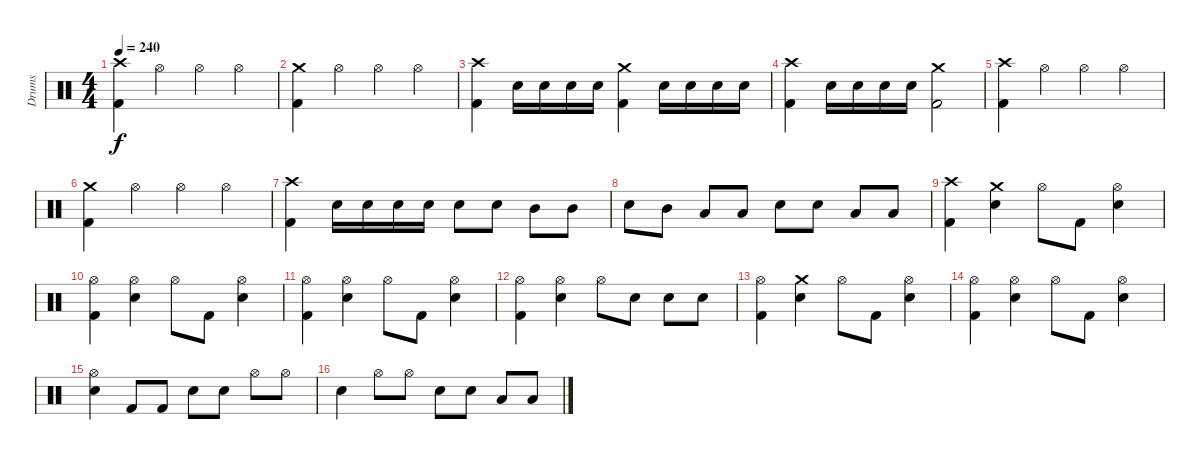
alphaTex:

\track ("Drums" "Drums") {instrument percussion}
\staff {score}
\articulation defaults
\ts (4 4)
\tempo 240
\clef neutral
\ks c
("Crash high (hit)" "Kick (hit) 2").4{dy f} "Hi-Hat (open)".4 "Hi-Hat (open)".4 "Hi-Hat (open)".4 |
("Crash medium (hit)" "Kick (hit) 2").4 "Hi-Hat (open)".4 "Hi-Hat (open)".4 "Hi-Hat (open)".4 |
("Crash high (hit)" "Kick (hit) 2").4 "Snare (hit) 2".16 "Snare (hit) 2".16 "Snare (hit) 2".16 "Snare (hit) 2".16 ("Crash medium (hit)" "Kick (hit) 2").4 "Snare (hit) 2".16 "Snare (hit) 2".16 "Snare (hit) 2".16 "Snare (hit) 2".16 |
("Crash high (hit)" "Kick (hit) 2").4 "Snare (hit) 2".16 "Snare (hit) 2".16 "Snare (hit) 2".16 "Snare (hit) 2".16 ("Crash medium (hit)" "Kick (hit) 2").2 |
("Crash high (hit)" "Kick (hit) 2").4 "Hi-Hat (open)".4 "Hi-Hat (open)".4 "Hi-Hat (open)".4 |
("Crash medium (hit)" "Kick (hit) 2").4 "Hi-Hat (open)".4 "Hi-Hat (open)".4 "Hi-Hat (open)".4 |
("Crash high (hit)" "Kick (hit) 2").4 "Snare (hit) 2".16 "Snare (hit) 2".16 "Snare (hit) 2".16 "Snare (hit) 2".16 "Snare (hit) 2".8 "Snare (hit) 2".8 "Mid Tom (hit)".8 "Mid Tom (hit)".8 |
"Snare (hit) 2".8 "Mid Tom (hit)".8 "Low Tom (hit)".8 "Low Tom (hit)".8 "Snare (hit) 2".8 "Snare (hit) 2".8 "Low Tom (hit)".8 "Low Tom (hit)".8 |
("Crash high (hit)" "Kick (hit) 2").4 ("Crash medium (hit)" "Snare (hit) 2").4 "Hi-Hat (open)".8 "Kick (hit) 2".8 ("Hi-Hat (open)" "Snare (hit) 2").4 |
("Hi-Hat (open)" "Kick (hit) 2").4 ("Hi-Hat (open)" "Snare (hit) 2").4 "Hi-Hat (open)".8 "Kick (hit) 2".8 ("Hi-Hat (open)" "Snare (hit) 2").4 |
("Hi-Hat (open)" "Kick (hit) 2").4 ("Hi-Hat (open)" "Snare (hit) 2").4 "Hi-Hat (open)".8 "Kick (hit) 2".8 ("Hi-Hat (open)" "Snare (hit) 2").4 |
("Hi-Hat (open)" "Kick (hit) 2").4 ("Hi-Hat (open)" "Snare (hit) 2").4 "Hi-Hat (open)".8 "Snare (hit) 2".8 "Snare (hit) 2".8 "Snare (hit) 2".8 |
("Hi-Hat (open)" "Kick (hit) 2").4 ("Crash medium (hit)" "Snare (hit) 2").4 "Hi-Hat (open)".8 "Kick (hit) 2".8 ("Hi-Hat (open)" "Snare (hit) 2").4 |
("Hi-Hat (open)" "Kick (hit) 2").4 ("Hi-Hat (open)" "Snare (hit) 2").4 "Hi-Hat (open)".8 "Kick (hit) 2".8 ("Hi-Hat (open)" "Snare (hit) 2").4 |
("Hi-Hat (open)" "Snare (hit) 2").4 "Kick (hit) 2".8 "Kick (hit) 2".8 "Snare (hit) 2".8 "Snare (hit) 2".8 "Hi-Hat (open)".8 "Hi-Hat (open)".8 |
"Snare (hit) 2".4 "Hi-Hat (open)".8 "Hi-Hat (open)".8 "Snare (hit) 2".8 "Snare (hit) 2".8 "Low Tom (hit)".8 "Low Tom (hit)".8
